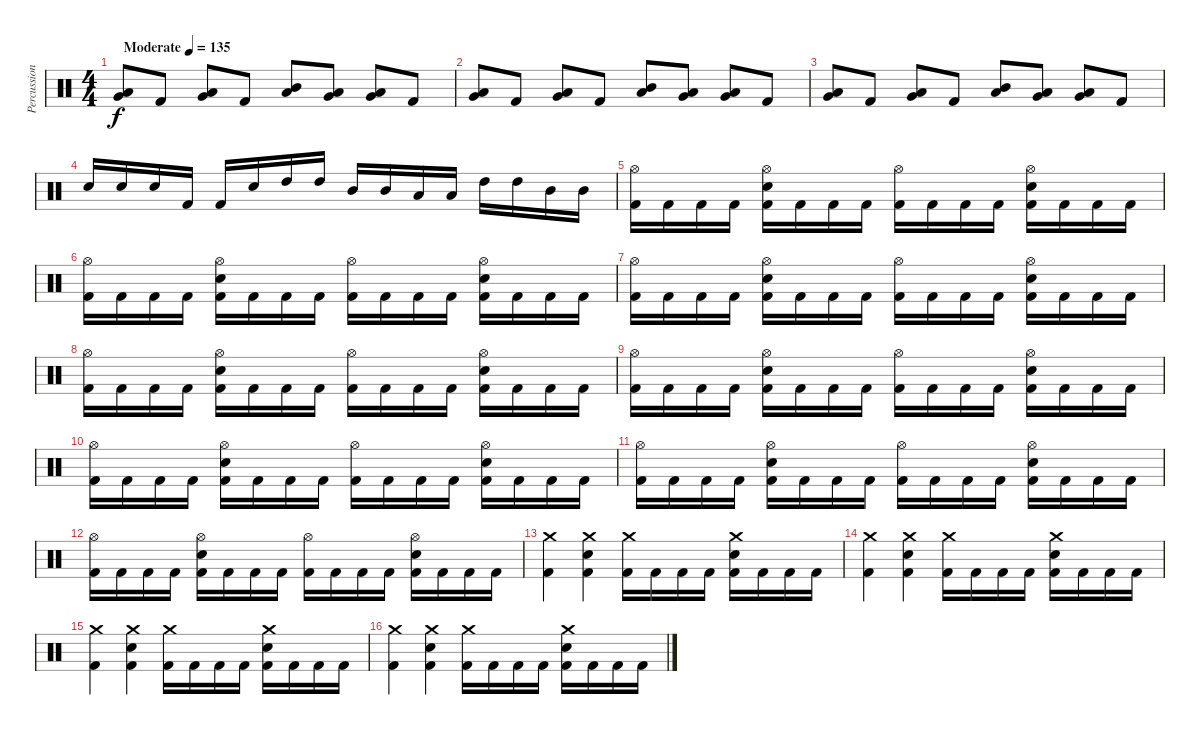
\track ("Percussion" "Percussion") {instrument percussion}
\staff {score}
\articulation defaults
\ts (4 4)
\tempo (135 "Moderate")
\clef neutral
\ks c
("Low Floor Tom (hit)" "Very Low Tom (hit)").8{dy f} "Kick (hit) 2".8 ("Low Floor Tom (hit)" "Very Low Tom (hit)").8 "Kick (hit) 2".8 ("Mid Tom (hit)" "Low Tom (hit)").8 ("Low Tom (hit)" "Very Low Tom (hit)").8 ("Low Floor Tom (hit)" "Very Low Tom (hit)").8 "Kick (hit) 2".8 |
("Low Floor Tom (hit)" "Very Low Tom (hit)").8 "Kick (hit) 2".8 ("Low Floor Tom (hit)" "Very Low Tom (hit)").8 "Kick (hit) 2".8 ("Mid Tom (hit)" "Low Tom (hit)").8 ("Low Tom (hit)" "Very Low Tom (hit)").8 ("Low Floor Tom (hit)" "Very Low Tom (hit)").8 "Kick (hit) 2".8 |
("Low Floor Tom (hit)" "Very Low Tom (hit)").8 "Kick (hit) 2".8 ("Low Floor Tom (hit)" "Very Low Tom (hit)").8 "Kick (hit) 2".8 ("Mid Tom (hit)" "Low Tom (hit)").8 ("Low Tom (hit)" "Very Low Tom (hit)").8 ("Low Floor Tom (hit)" "Very Low Tom (hit)").8 "Kick (hit) 2".8 |
"Electric Snare (hit)".16 "Electric Snare (hit)".16 "Electric Snare (hit)".16 "Kick (hit) 2".16 "Kick (hit) 2".16 "Electric Snare (hit)".16 "High Tom (hit)".16 "High Tom (hit)".16 "Mid Tom (hit)".16 "Mid Tom (hit)".16 "Low Tom (hit)".16 "Low Tom (hit)".16 "High Tom (hit)".16 "High Tom (hit)".16 "Mid Tom (hit)".16 "Mid Tom (hit)".16 |
("Kick (hit) 2" "Hi-Hat (open)").16 "Kick (hit) 2".16 "Kick (hit) 2".16 "Kick (hit) 2".16 ("Kick (hit) 2" "Hi-Hat (open)" "Electric Snare (hit)").16 "Kick (hit) 2".16 "Kick (hit) 2".16 "Kick (hit) 2".16 ("Kick (hit) 2" "Hi-Hat (open)").16 "Kick (hit) 2".16 "Kick (hit) 2".16 "Kick (hit) 2".16 ("Kick (hit) 2" "Hi-Hat (open)" "Electric Snare (hit)").16 "Kick (hit) 2".16 "Kick (hit) 2".16 "Kick (hit) 2".16 |
("Kick (hit) 2" "Hi-Hat (open)").16 "Kick (hit) 2".16 "Kick (hit) 2".16 "Kick (hit) 2".16 ("Kick (hit) 2" "Hi-Hat (open)" "Electric Snare (hit)").16 "Kick (hit) 2".16 "Kick (hit) 2".16 "Kick (hit) 2".16 ("Kick (hit) 2" "Hi-Hat (open)").16 "Kick (hit) 2".16 "Kick (hit) 2".16 "Kick (hit) 2".16 ("Kick (hit) 2" "Hi-Hat (open)" "Electric Snare (hit)").16 "Kick (hit) 2".16 "Kick (hit) 2".16 "Kick (hit) 2".16 |
("Kick (hit) 2" "Hi-Hat (open)").16 "Kick (hit) 2".16 "Kick (hit) 2".16 "Kick (hit) 2".16 ("Kick (hit) 2" "Hi-Hat (open)" "Electric Snare (hit)").16 "Kick (hit) 2".16 "Kick (hit) 2".16 "Kick (hit) 2".16 ("Kick (hit) 2" "Hi-Hat (open)").16 "Kick (hit) 2".16 "Kick (hit) 2".16 "Kick (hit) 2".16 ("Kick (hit) 2" "Hi-Hat (open)" "Electric Snare (hit)").16 "Kick (hit) 2".16 "Kick (hit) 2".16 "Kick (hit) 2".16 |
("Kick (hit) 2" "Hi-Hat (open)").16 "Kick (hit) 2".16 "Kick (hit) 2".16 "Kick (hit) 2".16 ("Kick (hit) 2" "Hi-Hat (open)" "Electric Snare (hit)").16 "Kick (hit) 2".16 "Kick (hit) 2".16 "Kick (hit) 2".16 ("Kick (hit) 2" "Hi-Hat (open)").16 "Kick (hit) 2".16 "Kick (hit) 2".16 "Kick (hit) 2".16 ("Kick (hit) 2" "Hi-Hat (open)" "Electric Snare (hit)").16 "Kick (hit) 2".16 "Kick (hit) 2".16 "Kick (hit) 2".16 |
("Kick (hit) 2" "Hi-Hat (open)").16 "Kick (hit) 2".16 "Kick (hit) 2".16 "Kick (hit) 2".16 ("Kick (hit) 2" "Hi-Hat (open)" "Electric Snare (hit)").16 "Kick (hit) 2".16 "Kick (hit) 2".16 "Kick (hit) 2".16 ("Kick (hit) 2" "Hi-Hat (open)").16 "Kick (hit) 2".16 "Kick (hit) 2".16 "Kick (hit) 2".16 ("Kick (hit) 2" "Hi-Hat (open)" "Electric Snare (hit)").16 "Kick (hit) 2".16 "Kick (hit) 2".16 "Kick (hit) 2".16 |
("Kick (hit) 2" "Hi-Hat (open)").16 "Kick (hit) 2".16 "Kick (hit) 2".16 "Kick (hit) 2".16 ("Kick (hit) 2" "Hi-Hat (open)" "Electric Snare (hit)").16 "Kick (hit) 2".16 "Kick (hit) 2".16 "Kick (hit) 2".16 ("Kick (hit) 2" "Hi-Hat (open)").16 "Kick (hit) 2".16 "Kick (hit) 2".16 "Kick (hit) 2".16 ("Kick (hit) 2" "Hi-Hat (open)" "Electric Snare (hit)").16 "Kick (hit) 2".16 "Kick (hit) 2".16 "Kick (hit) 2".16 |
("Kick (hit) 2" "Hi-Hat (open)").16 "Kick (hit) 2".16 "Kick (hit) 2".16 "Kick (hit) 2".16 ("Kick (hit) 2" "Hi-Hat (open)" "Electric Snare (hit)").16 "Kick (hit) 2".16 "Kick (hit) 2".16 "Kick (hit) 2".16 ("Kick (hit) 2" "Hi-Hat (open)").16 "Kick (hit) 2".16 "Kick (hit) 2".16 "Kick (hit) 2".16 ("Kick (hit) 2" "Hi-Hat (open)" "Electric Snare (hit)").16 "Kick (hit) 2".16 "Kick (hit) 2".16 "Kick (hit) 2".16 |
("Kick (hit) 2" "Hi-Hat (open)").16 "Kick (hit) 2".16 "Kick (hit) 2".16 "Kick (hit) 2".16 ("Kick (hit) 2" "Hi-Hat (open)" "Electric Snare (hit)").16 "Kick (hit) 2".16 "Kick (hit) 2".16 "Kick (hit) 2".16 ("Kick (hit) 2" "Hi-Hat (open)").16 "Kick (hit) 2".16 "Kick (hit) 2".16 "Kick (hit) 2".16 ("Kick (hit) 2" "Hi-Hat (open)" "Electric Snare (hit)").16 "Kick (hit) 2".16 "Kick (hit) 2".16 "Kick (hit) 2".16 |
("Kick (hit) 2" "Crash medium (hit)").4 ("Kick (hit) 2" "Electric Snare (hit)" "Crash medium (hit)").4 ("Kick (hit) 2" "Crash medium (hit)").16 "Kick (hit) 2".16 "Kick (hit) 2".16 "Kick (hit) 2".16 ("Kick (hit) 2" "Crash medium (hit)" "Electric Snare (hit)").16 "Kick (hit) 2".16 "Kick (hit) 2".16 "Kick (hit) 2".16 |
("Kick (hit) 2" "Crash medium (hit)").4 ("Kick (hit) 2" "Electric Snare (hit)" "Crash medium (hit)").4 ("Kick (hit) 2" "Crash medium (hit)").16 "Kick (hit) 2".16 "Kick (hit) 2".16 "Kick (hit) 2".16 ("Kick (hit) 2" "Crash medium (hit)" "Electric Snare (hit)").16 "Kick (hit) 2".16 "Kick (hit) 2".16 "Kick (hit) 2".16 |
("Kick (hit) 2" "Crash medium (hit)").4 ("Kick (hit) 2" "Electric Snare (hit)" "Crash medium (hit)").4 ("Kick (hit) 2" "Crash medium (hit)").16 "Kick (hit) 2".16 "Kick (hit) 2".16 "Kick (hit) 2".16 ("Kick (hit) 2" "Crash medium (hit)" "Electric Snare (hit)").16 "Kick (hit) 2".16 "Kick (hit) 2".16 "Kick (hit) 2".16 |
("Kick (hit) 2" "Crash medium (hit)").4 ("Kick (hit) 2" "Electric Snare (hit)" "Crash medium (hit)").4 ("Kick (hit) 2" "Crash medium (hit)").16 "Kick (hit) 2".16 "Kick (hit) 2".16 "Kick (hit) 2".16 ("Kick (hit) 2" "Crash medium (hit)" "Electric Snare (hit)").16 "Kick (hit) 2".16 "Kick (hit) 2".16 "Kick (hit) 2".16
